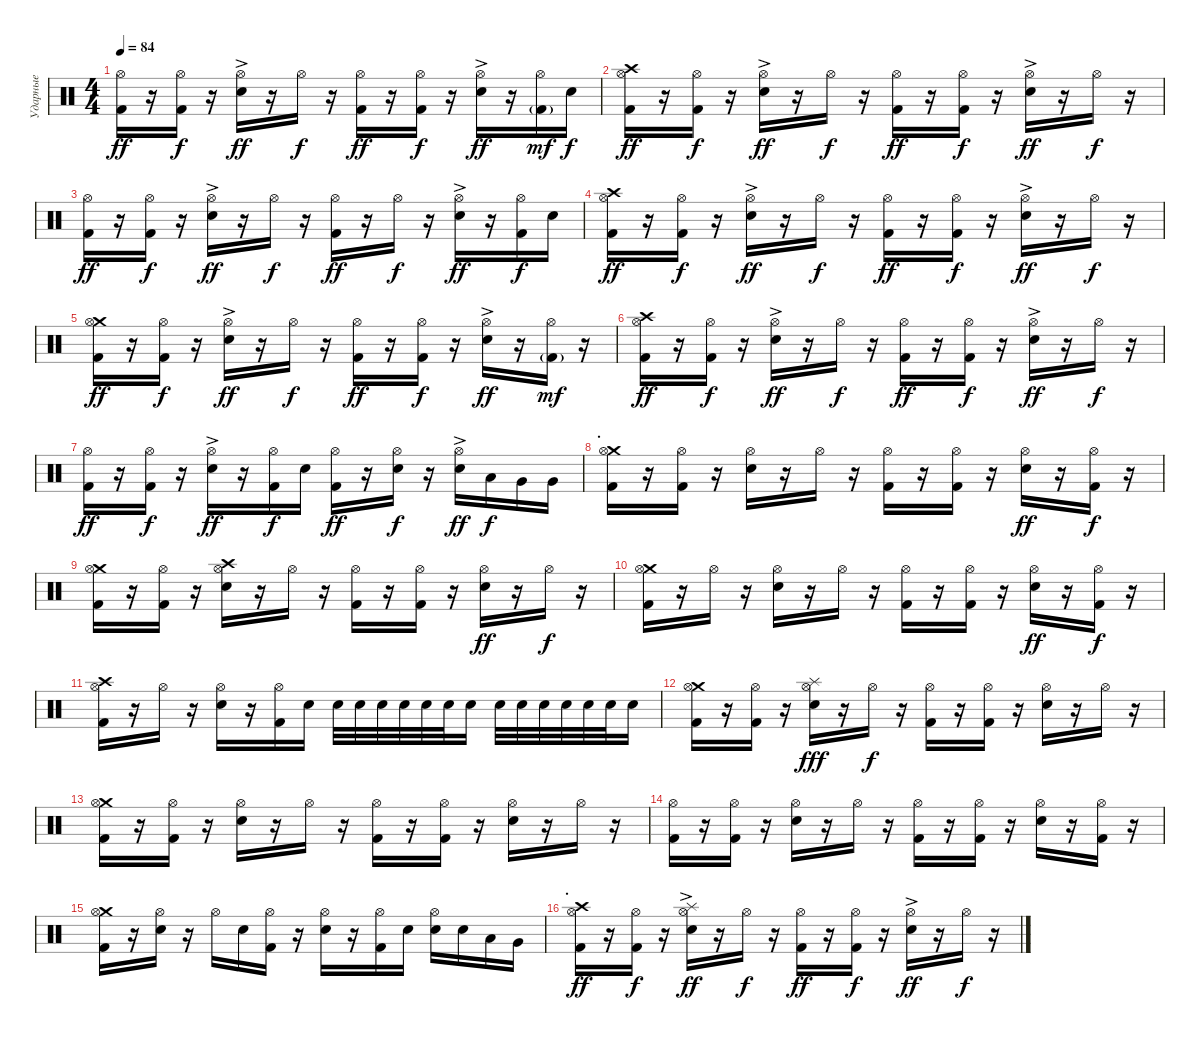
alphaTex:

\track ("Ударные" "Ударные") {instrument percussion}
\staff {score}
\articulation defaults
\ts (4 4)
\tempo 84
\clef neutral
\ks c
("Hi-Hat (open)" "Kick (hit) 2").16{dy ff} r.16 ("Hi-Hat (open)" "Kick (hit) 2").16{dy f} r.16 ("Hi-Hat (open)"{ac} "Electric Snare (hit)").16{dy ff} r.16 "Hi-Hat (open)".16{dy f} r.16 ("Hi-Hat (open)" "Kick (hit) 2").16{dy ff} r.16 ("Hi-Hat (open)" "Kick (hit) 2").16{dy f} r.16 ("Hi-Hat (open)"{ac} "Electric Snare (hit)").16{dy ff} r.16 ("Hi-Hat (open)" "Kick (hit) 2"{g}).16{dy mf} "Electric Snare (hit)".16{dy f} |
("Crash high (hit)" "Hi-Hat (open)" "Kick (hit) 2").16{dy ff} r.16 ("Hi-Hat (open)" "Kick (hit) 2").16{dy f} r.16 ("Hi-Hat (open)"{ac} "Electric Snare (hit)").16{dy ff} r.16 "Hi-Hat (open)".16{dy f} r.16 ("Hi-Hat (open)" "Kick (hit) 2").16{dy ff} r.16 ("Hi-Hat (open)" "Kick (hit) 2").16{dy f} r.16 ("Hi-Hat (open)"{ac} "Electric Snare (hit)").16{dy ff} r.16 "Hi-Hat (open)".16{dy f} r.16 |
("Hi-Hat (open)" "Kick (hit) 2").16{dy ff} r.16 ("Hi-Hat (open)" "Kick (hit) 2").16{dy f} r.16 ("Hi-Hat (open)"{ac} "Electric Snare (hit)").16{dy ff} r.16 "Hi-Hat (open)".16{dy f} r.16 ("Hi-Hat (open)" "Kick (hit) 2").16{dy ff} r.16 "Hi-Hat (open)".16{dy f} r.16 ("Hi-Hat (open)"{ac} "Electric Snare (hit)").16{dy ff} r.16 ("Hi-Hat (open)" "Kick (hit) 2").16{dy f} "Electric Snare (hit)".16 |
("Crash high (hit)" "Hi-Hat (open)" "Kick (hit) 2").16{dy ff} r.16 ("Hi-Hat (open)" "Kick (hit) 2").16{dy f} r.16 ("Hi-Hat (open)"{ac} "Electric Snare (hit)").16{dy ff} r.16 "Hi-Hat (open)".16{dy f} r.16 ("Hi-Hat (open)" "Kick (hit) 2").16{dy ff} r.16 ("Hi-Hat (open)" "Kick (hit) 2").16{dy f} r.16 ("Hi-Hat (open)"{ac} "Electric Snare (hit)").16{dy ff} r.16 "Hi-Hat (open)".16{dy f} r.16 |
("Crash medium (hit)" "Hi-Hat (open)" "Kick (hit) 2").16{dy ff} r.16 ("Hi-Hat (open)" "Kick (hit) 2").16{dy f} r.16 ("Hi-Hat (open)"{ac} "Electric Snare (hit)").16{dy ff} r.16 "Hi-Hat (open)".16{dy f} r.16 ("Hi-Hat (open)" "Kick (hit) 2").16{dy ff} r.16 ("Hi-Hat (open)" "Kick (hit) 2").16{dy f} r.16 ("Hi-Hat (open)"{ac} "Electric Snare (hit)").16{dy ff} r.16 ("Hi-Hat (open)" "Kick (hit) 2"{g}).16{dy mf} r.16 |
("Crash high (hit)" "Hi-Hat (open)" "Kick (hit) 2").16{dy ff} r.16 ("Hi-Hat (open)" "Kick (hit) 2").16{dy f} r.16 ("Hi-Hat (open)"{ac} "Electric Snare (hit)").16{dy ff} r.16 "Hi-Hat (open)".16{dy f} r.16 ("Hi-Hat (open)" "Kick (hit) 2").16{dy ff} r.16 ("Hi-Hat (open)" "Kick (hit) 2").16{dy f} r.16 ("Hi-Hat (open)"{ac} "Electric Snare (hit)").16{dy ff} r.16 "Hi-Hat (open)".16{dy f} r.16 |
("Hi-Hat (open)" "Kick (hit) 2").16{dy ff} r.16 ("Hi-Hat (open)" "Kick (hit) 2").16{dy f} r.16 ("Hi-Hat (open)"{ac} "Electric Snare (hit)").16{dy ff} r.16 ("Hi-Hat (open)" "Kick (hit) 2").16{dy f} "Electric Snare (hit)".16 ("Hi-Hat (open)" "Kick (hit) 2").16{dy ff} r.16 ("Hi-Hat (open)" "Electric Snare (hit)").16{dy f} r.16 ("Hi-Hat (open)"{ac} "Electric Snare (hit)").16{dy ff} "Low Tom (hit)".16{dy f} "Very Low Tom (hit)".16 "Very Low Tom (hit)".16 |
\section ("" ".")
("Crash medium (hit)" "Hi-Hat (open)" "Kick (hit) 2").16 r.16 ("Hi-Hat (open)" "Kick (hit) 2").16 r.16 ("Hi-Hat (open)" "Electric Snare (hit)").16 r.16 "Hi-Hat (open)".16 r.16 ("Hi-Hat (open)" "Kick (hit) 2").16 r.16 ("Hi-Hat (open)" "Kick (hit) 2").16 r.16 ("Hi-Hat (open)" "Electric Snare (hit)").16{dy ff} r.16 ("Hi-Hat (open)" "Kick (hit) 2").16{dy f} r.16 |
("Crash medium (hit)" "Hi-Hat (open)" "Kick (hit) 2").16 r.16 ("Hi-Hat (open)" "Kick (hit) 2").16 r.16 ("Crash high (hit)" "Hi-Hat (open)" "Electric Snare (hit)").16 r.16 "Hi-Hat (open)".16 r.16 ("Hi-Hat (open)" "Kick (hit) 2").16 r.16 ("Hi-Hat (open)" "Kick (hit) 2").16 r.16 ("Hi-Hat (open)" "Electric Snare (hit)").16{dy ff} r.16 "Hi-Hat (open)".16{dy f} r.16 |
("Crash medium (hit)" "Hi-Hat (open)" "Kick (hit) 2").16 r.16 "Hi-Hat (open)".16 r.16 ("Hi-Hat (open)" "Electric Snare (hit)").16 r.16 "Hi-Hat (open)".16 r.16 ("Hi-Hat (open)" "Kick (hit) 2").16 r.16 ("Hi-Hat (open)" "Kick (hit) 2").16 r.16 ("Hi-Hat (open)" "Electric Snare (hit)").16{dy ff} r.16 ("Hi-Hat (open)" "Kick (hit) 2").16{dy f} r.16 |
("Crash high (hit)" "Hi-Hat (open)" "Kick (hit) 2").16 r.16 "Hi-Hat (open)".16 r.16 ("Hi-Hat (open)" "Electric Snare (hit)").16 r.16 ("Hi-Hat (open)" "Kick (hit) 2").16 "Electric Snare (hit)".16 "Electric Snare (hit)".32 "Electric Snare (hit)".32 "Electric Snare (hit)".32 "Electric Snare (hit)".32 "Electric Snare (hit)".32 "Electric Snare (hit)".32 "Electric Snare (hit)".16 "Electric Snare (hit)".32 "Electric Snare (hit)".32 "Electric Snare (hit)".32 "Electric Snare (hit)".32 "Electric Snare (hit)".32 "Electric Snare (hit)".32 "Electric Snare (hit)".16 |
("Crash medium (hit)" "Hi-Hat (open)" "Kick (hit) 2").16 r.16 ("Hi-Hat (open)" "Kick (hit) 2").16 r.16 ("Splash (hit)" "Hi-Hat (open)" "Electric Snare (hit)").16{dy fff} r.16 "Hi-Hat (open)".16{dy f} r.16 ("Hi-Hat (open)" "Kick (hit) 2").16 r.16 ("Hi-Hat (open)" "Kick (hit) 2").16 r.16 ("Hi-Hat (open)" "Electric Snare (hit)").16 r.16 "Hi-Hat (open)".16 r.16 |
("Crash medium (hit)" "Hi-Hat (open)" "Kick (hit) 2").16 r.16 ("Hi-Hat (open)" "Kick (hit) 2").16 r.16 ("Hi-Hat (open)" "Electric Snare (hit)").16 r.16 "Hi-Hat (open)".16 r.16 ("Hi-Hat (open)" "Kick (hit) 2").16 r.16 ("Hi-Hat (open)" "Kick (hit) 2").16 r.16 ("Hi-Hat (open)" "Electric Snare (hit)").16 r.16 "Hi-Hat (open)".16 r.16 |
("Hi-Hat (open)" "Kick (hit) 2").16 r.16 ("Hi-Hat (open)" "Kick (hit) 2").16 r.16 ("Hi-Hat (open)" "Electric Snare (hit)").16 r.16 "Hi-Hat (open)".16 r.16 ("Hi-Hat (open)" "Kick (hit) 2").16 r.16 ("Hi-Hat (open)" "Kick (hit) 2").16 r.16 ("Hi-Hat (open)" "Electric Snare (hit)").16 r.16 ("Hi-Hat (open)" "Kick (hit) 2").16 r.16 |
("Crash medium (hit)" "Hi-Hat (open)" "Kick (hit) 2").16 r.16 ("Hi-Hat (open)" "Electric Snare (hit)").16 r.16 "Hi-Hat (open)".16 "Electric Snare (hit)".16 ("Hi-Hat (open)" "Kick (hit) 2").16 r.16 ("Hi-Hat (open)" "Electric Snare (hit)").16 r.16 ("Hi-Hat (open)" "Kick (hit) 2").16 "Electric Snare (hit)".16 ("Hi-Hat (open)" "Electric Snare (hit)").16 "Electric Snare (hit)".16 "Low Tom (hit)".16 "Very Low Tom (hit)".16 |
\section ("" ".")
("Crash high (hit)" "Hi-Hat (open)" "Kick (hit) 2").16{dy ff} r.16 ("Hi-Hat (open)" "Kick (hit) 2").16{dy f} r.16 ("Splash (hit)" "Hi-Hat (open)"{ac} "Electric Snare (hit)").16{dy ff} r.16 "Hi-Hat (open)".16{dy f} r.16 ("Hi-Hat (open)" "Kick (hit) 2").16{dy ff} r.16 ("Hi-Hat (open)" "Kick (hit) 2").16{dy f} r.16 ("Hi-Hat (open)"{ac} "Electric Snare (hit)").16{dy ff} r.16 "Hi-Hat (open)".16{dy f} r.16
